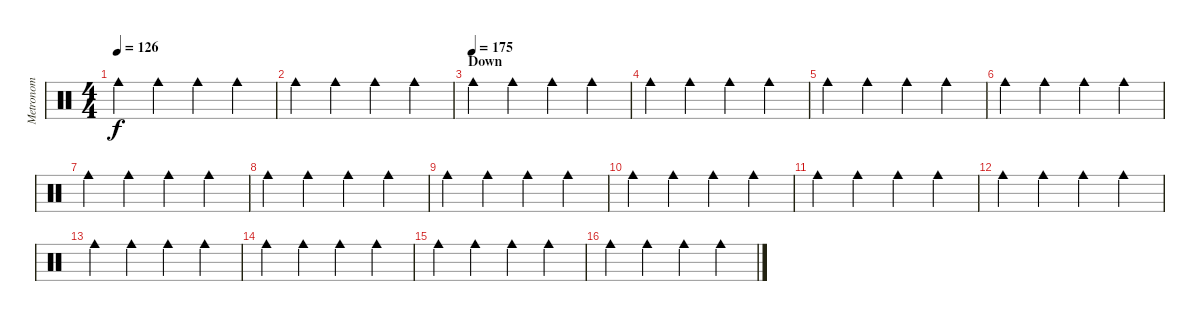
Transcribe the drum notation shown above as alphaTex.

\track ("Metronom" "Metronom") {instrument percussion}
\staff {score}
\articulation defaults
\ts (4 4)
\tempo 126
\clef neutral
\ks c "Cowbell medium (hit)".4{dy f} "Cowbell medium (hit)".4 "Cowbell medium (hit)".4 "Cowbell medium (hit)".4
|
"Cowbell medium (hit)".4 "Cowbell medium (hit)".4 "Cowbell medium (hit)".4 "Cowbell medium (hit)".4 |
\section ("" "Down")
\tempo (175)
"Cowbell medium (hit)".4 "Cowbell medium (hit)".4 "Cowbell medium (hit)".4 "Cowbell medium (hit)".4 |
"Cowbell medium (hit)".4 "Cowbell medium (hit)".4 "Cowbell medium (hit)".4 "Cowbell medium (hit)".4 |
"Cowbell medium (hit)".4 "Cowbell medium (hit)".4 "Cowbell medium (hit)".4 "Cowbell medium (hit)".4 |
"Cowbell medium (hit)".4 "Cowbell medium (hit)".4 "Cowbell medium (hit)".4 "Cowbell medium (hit)".4 |
"Cowbell medium (hit)".4 "Cowbell medium (hit)".4 "Cowbell medium (hit)".4 "Cowbell medium (hit)".4 |
"Cowbell medium (hit)".4 "Cowbell medium (hit)".4 "Cowbell medium (hit)".4 "Cowbell medium (hit)".4 |
"Cowbell medium (hit)".4 "Cowbell medium (hit)".4 "Cowbell medium (hit)".4 "Cowbell medium (hit)".4 |
"Cowbell medium (hit)".4 "Cowbell medium (hit)".4 "Cowbell medium (hit)".4 "Cowbell medium (hit)".4 |
"Cowbell medium (hit)".4 "Cowbell medium (hit)".4 "Cowbell medium (hit)".4 "Cowbell medium (hit)".4 |
"Cowbell medium (hit)".4 "Cowbell medium (hit)".4 "Cowbell medium (hit)".4 "Cowbell medium (hit)".4 |
"Cowbell medium (hit)".4 "Cowbell medium (hit)".4 "Cowbell medium (hit)".4 "Cowbell medium (hit)".4 |
"Cowbell medium (hit)".4 "Cowbell medium (hit)".4 "Cowbell medium (hit)".4 "Cowbell medium (hit)".4 |
"Cowbell medium (hit)".4 "Cowbell medium (hit)".4 "Cowbell medium (hit)".4 "Cowbell medium (hit)".4 |
"Cowbell medium (hit)".4 "Cowbell medium (hit)".4 "Cowbell medium (hit)".4 "Cowbell medium (hit)".4
